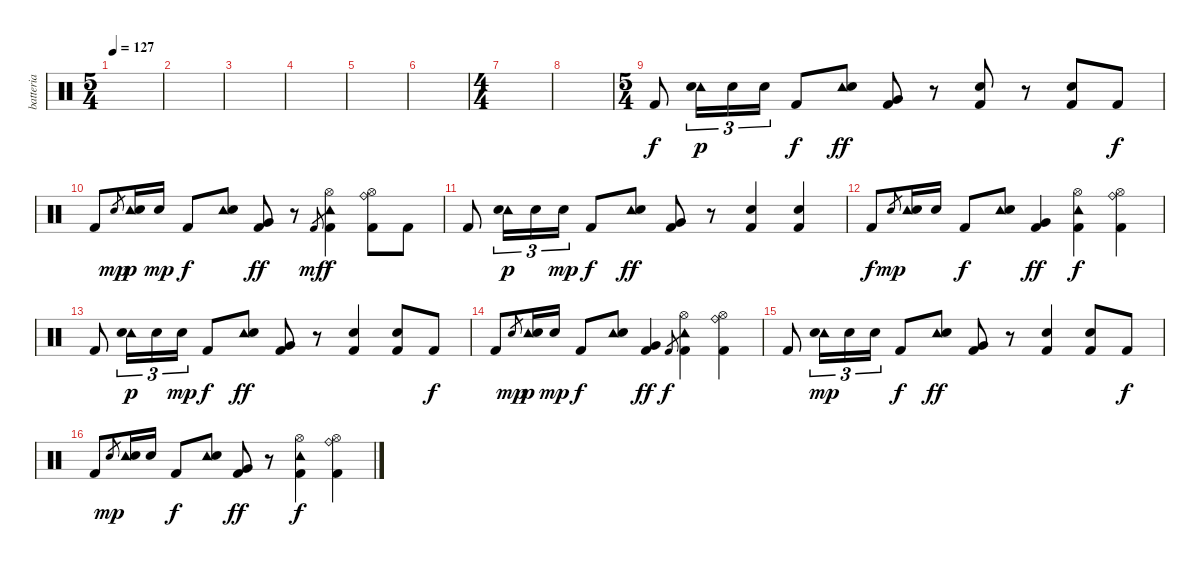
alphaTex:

\track ("batteria" "batteria") {instrument percussion}
\staff {score}
\articulation defaults
\ts (5 4)
\tempo 127
\clef neutral
\ks c
|
|
|
|
|
|
\ts (4 4)
|
|
\ts (5 4)
"Kick (hit) 2".8 ("Tambourine (hit)" "Electric Snare (hit)").16{tu (3 2) dy p} "Electric Snare (hit)".16{tu (3 2)} "Electric Snare (hit)".16{tu (3 2)} "Kick (hit) 2".8{dy f} ("Tambourine (hit)" "Electric Snare (hit)").8{dy ff} ("Very Low Tom (hit)" "Kick (hit) 2").8 r.8 ("Electric Snare (hit)" "Kick (hit) 2").8 r.8 ("Electric Snare (hit)" "Kick (hit) 2").8 "Kick (hit) 2".8{dy f} |
"Kick (hit) 2".8 "Electric Snare (hit)".8{gr dy mp} ("Tambourine (hit)" "Electric Snare (hit)").16{dy p} "Electric Snare (hit)".16{dy mp} "Kick (hit) 2".8{dy f} ("Tambourine (hit)" "Electric Snare (hit)").8 ("Very Low Tom (hit)" "Kick (hit) 2").8{dy ff} r.8 "Kick (hit) 2".8{gr dy mf} ("Hi-Hat (open)" "Tambourine (hit)" "Kick (hit) 2").4{dy f} ("Ride (bell)" "Hi-Hat (open)" "Kick (hit) 2").8 "Kick (hit) 2".8 |
"Kick (hit) 2".8 ("Tambourine (hit)" "Electric Snare (hit)").16{tu (3 2) dy p} "Electric Snare (hit)".16{tu (3 2)} "Electric Snare (hit)".16{tu (3 2) dy mp} "Kick (hit) 2".8{dy f} ("Tambourine (hit)" "Electric Snare (hit)").8{dy ff} ("Very Low Tom (hit)" "Kick (hit) 2").8 r.8 ("Electric Snare (hit)" "Kick (hit) 2").4 ("Electric Snare (hit)" "Kick (hit) 2").4 |
"Kick (hit) 2".8{dy f} "Electric Snare (hit)".8{gr dy mp} ("Tambourine (hit)" "Electric Snare (hit)").16 "Electric Snare (hit)".16 "Kick (hit) 2".8{dy f} ("Tambourine (hit)" "Electric Snare (hit)").8 ("Very Low Tom (hit)" "Kick (hit) 2").4{dy ff} ("Hi-Hat (open)" "Tambourine (hit)" "Kick (hit) 2").4{dy f} ("Ride (bell)" "Hi-Hat (open)" "Kick (hit) 2").4 |
"Kick (hit) 2".8 ("Tambourine (hit)" "Electric Snare (hit)").16{tu (3 2) dy p} "Electric Snare (hit)".16{tu (3 2)} "Electric Snare (hit)".16{tu (3 2) dy mp} "Kick (hit) 2".8{dy f} ("Tambourine (hit)" "Electric Snare (hit)").8{dy ff} ("Very Low Tom (hit)" "Kick (hit) 2").8 r.8 ("Electric Snare (hit)" "Kick (hit) 2").4 ("Electric Snare (hit)" "Kick (hit) 2").8 "Kick (hit) 2".8{dy f} |
"Kick (hit) 2".8 "Electric Snare (hit)".8{gr dy mp} ("Tambourine (hit)" "Electric Snare (hit)").16{dy p} "Electric Snare (hit)".16{dy mp} "Kick (hit) 2".8{dy f} ("Tambourine (hit)" "Electric Snare (hit)").8 ("Very Low Tom (hit)" "Kick (hit) 2").4{dy ff} "Kick (hit) 2".8{gr dy f} ("Hi-Hat (open)" "Tambourine (hit)" "Kick (hit) 2").4 ("Ride (bell)" "Hi-Hat (open)" "Kick (hit) 2").4 |
"Kick (hit) 2".8 ("Tambourine (hit)" "Electric Snare (hit)").16{tu (3 2) dy mp} "Electric Snare (hit)".16{tu (3 2)} "Electric Snare (hit)".16{tu (3 2)} "Kick (hit) 2".8{dy f} ("Tambourine (hit)" "Electric Snare (hit)").8{dy ff} ("Very Low Tom (hit)" "Kick (hit) 2").8 r.8 ("Electric Snare (hit)" "Kick (hit) 2").4 ("Electric Snare (hit)" "Kick (hit) 2").8 "Kick (hit) 2".8{dy f} |
"Kick (hit) 2".8 "Electric Snare (hit)".8{gr dy mp} ("Tambourine (hit)" "Electric Snare (hit)").16 "Electric Snare (hit)".16 "Kick (hit) 2".8{dy f} ("Tambourine (hit)" "Electric Snare (hit)").8 ("Very Low Tom (hit)" "Kick (hit) 2").8{dy ff} r.8 ("Hi-Hat (open)" "Tambourine (hit)" "Kick (hit) 2").4{dy f} ("Ride (bell)" "Hi-Hat (open)" "Kick (hit) 2").4
